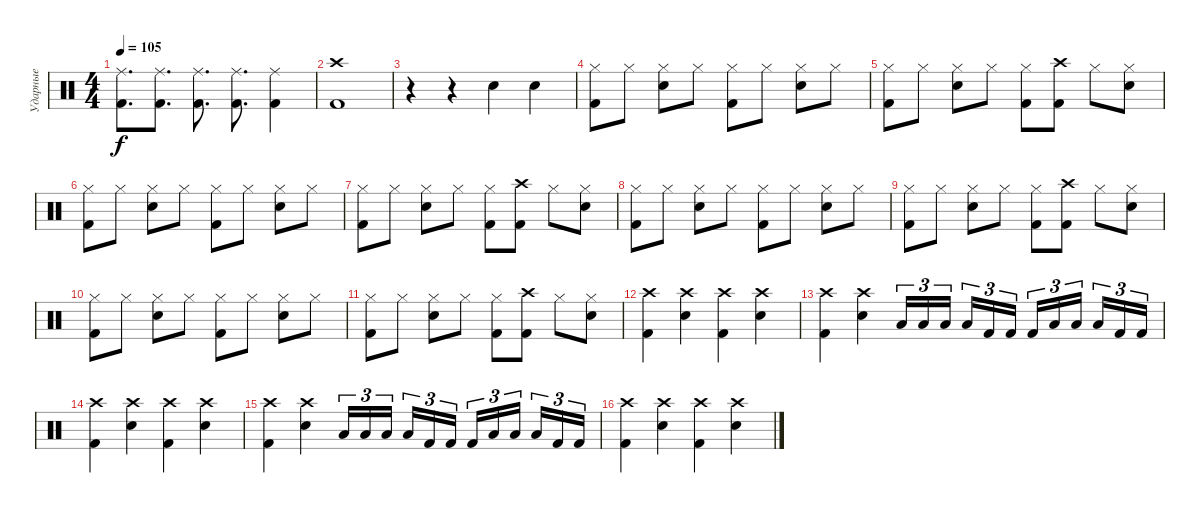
\track ("Ударные" "Ударные") {instrument percussion}
\staff {score}
\articulation defaults
\ts (4 4)
\tempo 105
\clef neutral
\ks c
("Ride (middle)" "Kick (hit) 2").8{d dy f} ("Ride (middle)" "Kick (hit) 2").8{d} ("Ride (middle)" "Kick (hit) 2").8{d} ("Ride (middle)" "Kick (hit) 2").8{d} ("Kick (hit) 2" "Ride (middle)").4 |
("Crash high (hit)" "Kick (hit) 2").1 |
r.4 r.4 "Electric Snare (hit)".4 "Electric Snare (hit)".4 |
("Kick (hit) 2" "Hi-Hat (closed)").8 "Hi-Hat (closed)".8 ("Electric Snare (hit)" "Hi-Hat (closed)").8 "Hi-Hat (closed)".8 ("Kick (hit) 2" "Hi-Hat (closed)").8 "Hi-Hat (closed)".8 ("Electric Snare (hit)" "Hi-Hat (closed)").8 "Hi-Hat (closed)".8 |
("Kick (hit) 2" "Hi-Hat (closed)").8 "Hi-Hat (closed)".8 ("Electric Snare (hit)" "Hi-Hat (closed)").8 "Hi-Hat (closed)".8 ("Kick (hit) 2" "Hi-Hat (closed)").8 ("Crash high (hit)" "Kick (hit) 2").8 "Hi-Hat (closed)".8 ("Electric Snare (hit)" "Hi-Hat (closed)").8 |
("Kick (hit) 2" "Hi-Hat (closed)").8 "Hi-Hat (closed)".8 ("Electric Snare (hit)" "Hi-Hat (closed)").8 "Hi-Hat (closed)".8 ("Kick (hit) 2" "Hi-Hat (closed)").8 "Hi-Hat (closed)".8 ("Electric Snare (hit)" "Hi-Hat (closed)").8 "Hi-Hat (closed)".8 |
("Kick (hit) 2" "Hi-Hat (closed)").8 "Hi-Hat (closed)".8 ("Electric Snare (hit)" "Hi-Hat (closed)").8 "Hi-Hat (closed)".8 ("Kick (hit) 2" "Hi-Hat (closed)").8 ("Crash high (hit)" "Kick (hit) 2").8 "Hi-Hat (closed)".8 ("Electric Snare (hit)" "Hi-Hat (closed)").8 |
("Kick (hit) 2" "Hi-Hat (closed)").8 "Hi-Hat (closed)".8 ("Electric Snare (hit)" "Hi-Hat (closed)").8 "Hi-Hat (closed)".8 ("Kick (hit) 2" "Hi-Hat (closed)").8 "Hi-Hat (closed)".8 ("Electric Snare (hit)" "Hi-Hat (closed)").8 "Hi-Hat (closed)".8 |
("Kick (hit) 2" "Hi-Hat (closed)").8 "Hi-Hat (closed)".8 ("Electric Snare (hit)" "Hi-Hat (closed)").8 "Hi-Hat (closed)".8 ("Kick (hit) 2" "Hi-Hat (closed)").8 ("Crash high (hit)" "Kick (hit) 2").8 "Hi-Hat (closed)".8 ("Electric Snare (hit)" "Hi-Hat (closed)").8 |
("Kick (hit) 2" "Hi-Hat (closed)").8 "Hi-Hat (closed)".8 ("Electric Snare (hit)" "Hi-Hat (closed)").8 "Hi-Hat (closed)".8 ("Kick (hit) 2" "Hi-Hat (closed)").8 "Hi-Hat (closed)".8 ("Electric Snare (hit)" "Hi-Hat (closed)").8 "Hi-Hat (closed)".8 |
("Kick (hit) 2" "Hi-Hat (closed)").8 "Hi-Hat (closed)".8 ("Electric Snare (hit)" "Hi-Hat (closed)").8 "Hi-Hat (closed)".8 ("Kick (hit) 2" "Hi-Hat (closed)").8 ("Crash high (hit)" "Kick (hit) 2").8 "Hi-Hat (closed)".8 ("Electric Snare (hit)" "Hi-Hat (closed)").8 |
("Crash high (hit)" "Kick (hit) 2").4 ("Crash high (hit)" "Electric Snare (hit)").4 ("Kick (hit) 2" "Crash high (hit)").4 ("Crash high (hit)" "Electric Snare (hit)").4 |
("Crash high (hit)" "Kick (hit) 2").4 ("Crash high (hit)" "Electric Snare (hit)").4 "Low Tom (hit)".16{tu (3 2)} "Low Tom (hit)".16{tu (3 2)} "Low Tom (hit)".16{tu (3 2) beam splitsecondary} "Low Tom (hit)".16{tu (3 2)} "Kick (hit) 2".16{tu (3 2)} "Kick (hit) 2".16{tu (3 2)} "Kick (hit) 2".16{tu (3 2)} "Low Tom (hit)".16{tu (3 2)} "Low Tom (hit)".16{tu (3 2) beam splitsecondary} "Low Tom (hit)".16{tu (3 2)} "Kick (hit) 2".16{tu (3 2)} "Kick (hit) 2".16{tu (3 2)} |
("Crash high (hit)" "Kick (hit) 2").4 ("Crash high (hit)" "Electric Snare (hit)").4 ("Kick (hit) 2" "Crash high (hit)").4 ("Crash high (hit)" "Electric Snare (hit)").4 |
("Crash high (hit)" "Kick (hit) 2").4 ("Crash high (hit)" "Electric Snare (hit)").4 "Low Tom (hit)".16{tu (3 2)} "Low Tom (hit)".16{tu (3 2)} "Low Tom (hit)".16{tu (3 2) beam splitsecondary} "Low Tom (hit)".16{tu (3 2)} "Kick (hit) 2".16{tu (3 2)} "Kick (hit) 2".16{tu (3 2)} "Kick (hit) 2".16{tu (3 2)} "Low Tom (hit)".16{tu (3 2)} "Low Tom (hit)".16{tu (3 2) beam splitsecondary} "Low Tom (hit)".16{tu (3 2)} "Kick (hit) 2".16{tu (3 2)} "Kick (hit) 2".16{tu (3 2)} |
("Crash high (hit)" "Kick (hit) 2").4 ("Crash high (hit)" "Electric Snare (hit)").4 ("Kick (hit) 2" "Crash high (hit)").4 ("Crash high (hit)" "Electric Snare (hit)").4
